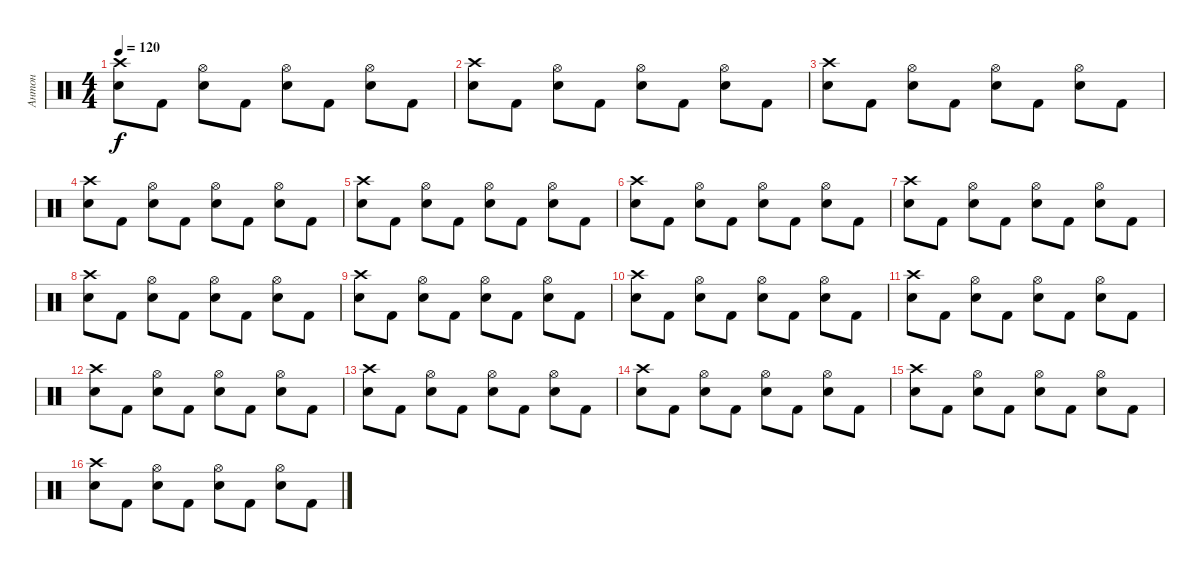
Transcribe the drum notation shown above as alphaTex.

\track ("Антон" "Антон") {instrument percussion}
\staff {score}
\articulation defaults
\ts (4 4)
\tempo 120
\clef neutral
\ks c
("Crash high (hit)" "Electric Snare (hit)").8{dy f} "Kick (hit) 2".8 ("Hi-Hat (open)" "Electric Snare (hit)").8 "Kick (hit) 2".8 ("Hi-Hat (open)" "Electric Snare (hit)").8 "Kick (hit) 2".8 ("Hi-Hat (open)" "Electric Snare (hit)").8 "Kick (hit) 2".8 |
("Crash high (hit)" "Electric Snare (hit)").8 "Kick (hit) 2".8 ("Hi-Hat (open)" "Electric Snare (hit)").8 "Kick (hit) 2".8 ("Hi-Hat (open)" "Electric Snare (hit)").8 "Kick (hit) 2".8 ("Hi-Hat (open)" "Electric Snare (hit)").8 "Kick (hit) 2".8 |
("Crash high (hit)" "Electric Snare (hit)").8 "Kick (hit) 2".8 ("Hi-Hat (open)" "Electric Snare (hit)").8 "Kick (hit) 2".8 ("Hi-Hat (open)" "Electric Snare (hit)").8 "Kick (hit) 2".8 ("Hi-Hat (open)" "Electric Snare (hit)").8 "Kick (hit) 2".8 |
("Crash high (hit)" "Electric Snare (hit)").8 "Kick (hit) 2".8 ("Hi-Hat (open)" "Electric Snare (hit)").8 "Kick (hit) 2".8 ("Hi-Hat (open)" "Electric Snare (hit)").8 "Kick (hit) 2".8 ("Hi-Hat (open)" "Electric Snare (hit)").8 "Kick (hit) 2".8 |
("Crash high (hit)" "Electric Snare (hit)").8 "Kick (hit) 2".8 ("Hi-Hat (open)" "Electric Snare (hit)").8 "Kick (hit) 2".8 ("Hi-Hat (open)" "Electric Snare (hit)").8 "Kick (hit) 2".8 ("Hi-Hat (open)" "Electric Snare (hit)").8 "Kick (hit) 2".8 |
("Crash high (hit)" "Electric Snare (hit)").8 "Kick (hit) 2".8 ("Hi-Hat (open)" "Electric Snare (hit)").8 "Kick (hit) 2".8 ("Hi-Hat (open)" "Electric Snare (hit)").8 "Kick (hit) 2".8 ("Hi-Hat (open)" "Electric Snare (hit)").8 "Kick (hit) 2".8 |
("Crash high (hit)" "Electric Snare (hit)").8 "Kick (hit) 2".8 ("Hi-Hat (open)" "Electric Snare (hit)").8 "Kick (hit) 2".8 ("Hi-Hat (open)" "Electric Snare (hit)").8 "Kick (hit) 2".8 ("Hi-Hat (open)" "Electric Snare (hit)").8 "Kick (hit) 2".8 |
("Crash high (hit)" "Electric Snare (hit)").8 "Kick (hit) 2".8 ("Hi-Hat (open)" "Electric Snare (hit)").8 "Kick (hit) 2".8 ("Hi-Hat (open)" "Electric Snare (hit)").8 "Kick (hit) 2".8 ("Hi-Hat (open)" "Electric Snare (hit)").8 "Kick (hit) 2".8 |
("Crash high (hit)" "Electric Snare (hit)").8 "Kick (hit) 2".8 ("Hi-Hat (open)" "Electric Snare (hit)").8 "Kick (hit) 2".8 ("Hi-Hat (open)" "Electric Snare (hit)").8 "Kick (hit) 2".8 ("Hi-Hat (open)" "Electric Snare (hit)").8 "Kick (hit) 2".8 |
("Crash high (hit)" "Electric Snare (hit)").8 "Kick (hit) 2".8 ("Hi-Hat (open)" "Electric Snare (hit)").8 "Kick (hit) 2".8 ("Hi-Hat (open)" "Electric Snare (hit)").8 "Kick (hit) 2".8 ("Hi-Hat (open)" "Electric Snare (hit)").8 "Kick (hit) 2".8 |
("Crash high (hit)" "Electric Snare (hit)").8 "Kick (hit) 2".8 ("Hi-Hat (open)" "Electric Snare (hit)").8 "Kick (hit) 2".8 ("Hi-Hat (open)" "Electric Snare (hit)").8 "Kick (hit) 2".8 ("Hi-Hat (open)" "Electric Snare (hit)").8 "Kick (hit) 2".8 |
("Crash high (hit)" "Electric Snare (hit)").8 "Kick (hit) 2".8 ("Hi-Hat (open)" "Electric Snare (hit)").8 "Kick (hit) 2".8 ("Hi-Hat (open)" "Electric Snare (hit)").8 "Kick (hit) 2".8 ("Hi-Hat (open)" "Electric Snare (hit)").8 "Kick (hit) 2".8 |
("Crash high (hit)" "Electric Snare (hit)").8 "Kick (hit) 2".8 ("Hi-Hat (open)" "Electric Snare (hit)").8 "Kick (hit) 2".8 ("Hi-Hat (open)" "Electric Snare (hit)").8 "Kick (hit) 2".8 ("Hi-Hat (open)" "Electric Snare (hit)").8 "Kick (hit) 2".8 |
("Crash high (hit)" "Electric Snare (hit)").8 "Kick (hit) 2".8 ("Hi-Hat (open)" "Electric Snare (hit)").8 "Kick (hit) 2".8 ("Hi-Hat (open)" "Electric Snare (hit)").8 "Kick (hit) 2".8 ("Hi-Hat (open)" "Electric Snare (hit)").8 "Kick (hit) 2".8 |
("Crash high (hit)" "Electric Snare (hit)").8 "Kick (hit) 2".8 ("Hi-Hat (open)" "Electric Snare (hit)").8 "Kick (hit) 2".8 ("Hi-Hat (open)" "Electric Snare (hit)").8 "Kick (hit) 2".8 ("Hi-Hat (open)" "Electric Snare (hit)").8 "Kick (hit) 2".8 |
("Crash high (hit)" "Electric Snare (hit)").8 "Kick (hit) 2".8 ("Hi-Hat (open)" "Electric Snare (hit)").8 "Kick (hit) 2".8 ("Hi-Hat (open)" "Electric Snare (hit)").8 "Kick (hit) 2".8 ("Hi-Hat (open)" "Electric Snare (hit)").8 "Kick (hit) 2".8
